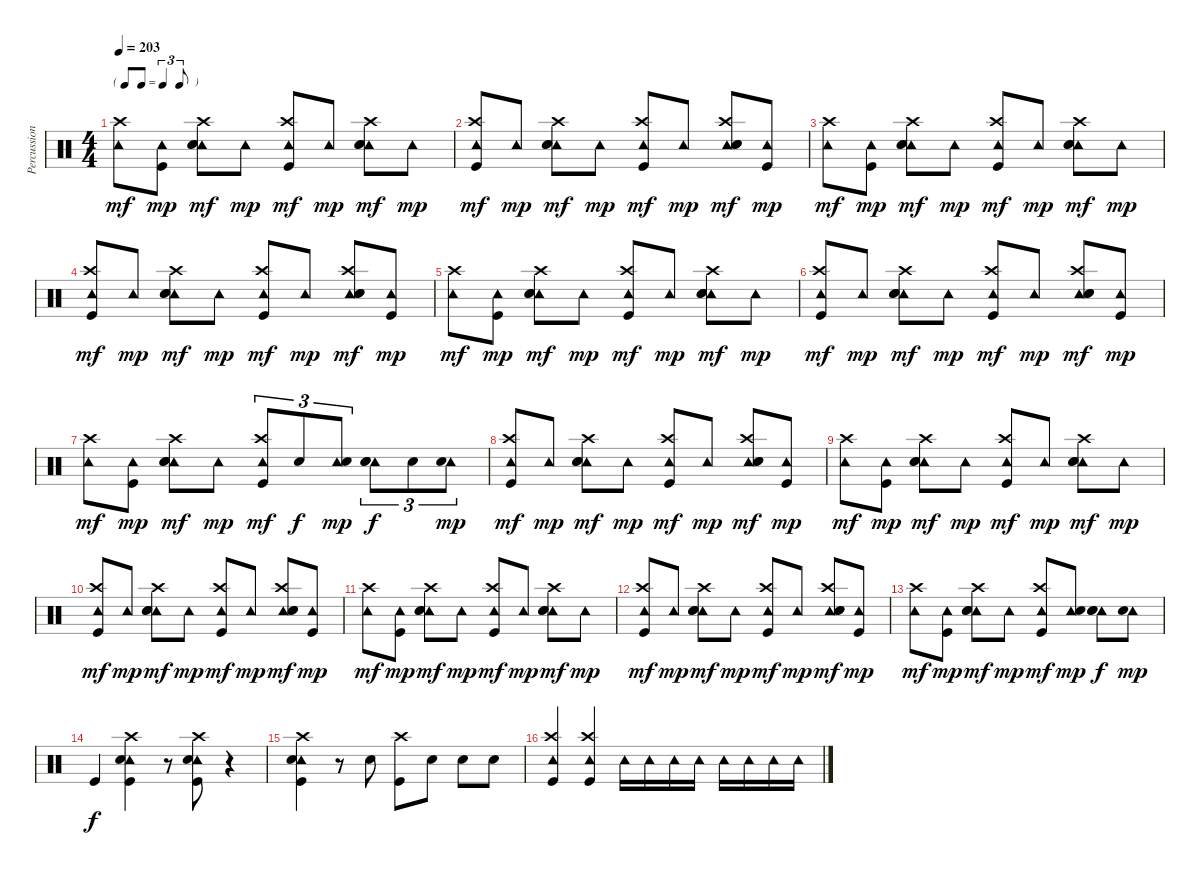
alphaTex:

\track ("Percussion" "Percussion") {instrument percussion}
\staff {score}
\articulation defaults
\ts (4 4)
\tf triplet8th
\tempo 203
\clef neutral
\ks c
("Tambourine (hit)" "Crash high (hit)").8{dy mf} ("Tambourine (hit)" "Kick (hit)").8{dy mp} ("Tambourine (hit)" "Crash high (hit)" "Hand Clap (hit)" "Snare (hit) 2").8{dy mf} "Tambourine (hit)".8{dy mp} ("Tambourine (hit)" "Crash high (hit)" "Kick (hit)").8{dy mf} "Tambourine (hit)".8{dy mp} ("Tambourine (hit)" "Crash high (hit)" "Hand Clap (hit)" "Snare (hit) 2").8{dy mf} "Tambourine (hit)".8{dy mp} |
("Tambourine (hit)" "Crash high (hit)" "Kick (hit)").8{dy mf} "Tambourine (hit)".8{dy mp} ("Tambourine (hit)" "Crash high (hit)" "Hand Clap (hit)" "Snare (hit) 2").8{dy mf} "Tambourine (hit)".8{dy mp} ("Tambourine (hit)" "Crash high (hit)" "Kick (hit)").8{dy mf} "Tambourine (hit)".8{dy mp} ("Tambourine (hit)" "Crash high (hit)" "Hand Clap (hit)" "Snare (hit) 2").8{dy mf} ("Tambourine (hit)" "Kick (hit)").8{dy mp} |
("Tambourine (hit)" "Crash high (hit)").8{dy mf} ("Tambourine (hit)" "Kick (hit)").8{dy mp} ("Tambourine (hit)" "Crash high (hit)" "Hand Clap (hit)" "Snare (hit) 2").8{dy mf} "Tambourine (hit)".8{dy mp} ("Tambourine (hit)" "Crash high (hit)" "Kick (hit)").8{dy mf} "Tambourine (hit)".8{dy mp} ("Tambourine (hit)" "Crash high (hit)" "Hand Clap (hit)" "Snare (hit) 2").8{dy mf} "Tambourine (hit)".8{dy mp} |
("Tambourine (hit)" "Crash high (hit)" "Kick (hit)").8{dy mf} "Tambourine (hit)".8{dy mp} ("Tambourine (hit)" "Crash high (hit)" "Hand Clap (hit)" "Snare (hit) 2").8{dy mf} "Tambourine (hit)".8{dy mp} ("Tambourine (hit)" "Crash high (hit)" "Kick (hit)").8{dy mf} "Tambourine (hit)".8{dy mp} ("Tambourine (hit)" "Crash high (hit)" "Hand Clap (hit)" "Snare (hit) 2").8{dy mf} ("Tambourine (hit)" "Kick (hit)").8{dy mp} |
("Tambourine (hit)" "Crash high (hit)").8{dy mf} ("Tambourine (hit)" "Kick (hit)").8{dy mp} ("Tambourine (hit)" "Crash high (hit)" "Hand Clap (hit)" "Snare (hit) 2").8{dy mf} "Tambourine (hit)".8{dy mp} ("Tambourine (hit)" "Crash high (hit)" "Kick (hit)").8{dy mf} "Tambourine (hit)".8{dy mp} ("Tambourine (hit)" "Crash high (hit)" "Hand Clap (hit)" "Snare (hit) 2").8{dy mf} "Tambourine (hit)".8{dy mp} |
("Tambourine (hit)" "Crash high (hit)" "Kick (hit)").8{dy mf} "Tambourine (hit)".8{dy mp} ("Tambourine (hit)" "Crash high (hit)" "Hand Clap (hit)" "Snare (hit) 2").8{dy mf} "Tambourine (hit)".8{dy mp} ("Tambourine (hit)" "Crash high (hit)" "Kick (hit)").8{dy mf} "Tambourine (hit)".8{dy mp} ("Tambourine (hit)" "Crash high (hit)" "Hand Clap (hit)" "Snare (hit) 2").8{dy mf} ("Tambourine (hit)" "Kick (hit)").8{dy mp} |
("Tambourine (hit)" "Crash high (hit)").8{dy mf} ("Tambourine (hit)" "Kick (hit)").8{dy mp} ("Tambourine (hit)" "Crash high (hit)" "Hand Clap (hit)" "Snare (hit) 2").8{dy mf} "Tambourine (hit)".8{dy mp} ("Tambourine (hit)" "Crash high (hit)" "Kick (hit)").8{tu (3 2) dy mf} "Snare (hit) 2".8{tu (3 2) dy f} ("Tambourine (hit)" "Snare (hit) 2").8{tu (3 2) dy mp} ("Tambourine (hit)" "Hand Clap (hit)" "Snare (hit) 2").8{tu (3 2) dy f} "Snare (hit) 2".8{tu (3 2)} ("Tambourine (hit)" "Snare (hit) 2").8{tu (3 2) dy mp} |
("Tambourine (hit)" "Crash high (hit)" "Kick (hit)").8{dy mf} "Tambourine (hit)".8{dy mp} ("Tambourine (hit)" "Crash high (hit)" "Hand Clap (hit)" "Snare (hit) 2").8{dy mf} "Tambourine (hit)".8{dy mp} ("Tambourine (hit)" "Crash high (hit)" "Kick (hit)").8{dy mf} "Tambourine (hit)".8{dy mp} ("Tambourine (hit)" "Crash high (hit)" "Hand Clap (hit)" "Snare (hit) 2").8{dy mf} ("Tambourine (hit)" "Kick (hit)").8{dy mp} |
("Tambourine (hit)" "Crash high (hit)").8{dy mf} ("Tambourine (hit)" "Kick (hit)").8{dy mp} ("Tambourine (hit)" "Crash high (hit)" "Hand Clap (hit)" "Snare (hit) 2").8{dy mf} "Tambourine (hit)".8{dy mp} ("Tambourine (hit)" "Crash high (hit)" "Kick (hit)").8{dy mf} "Tambourine (hit)".8{dy mp} ("Tambourine (hit)" "Crash high (hit)" "Hand Clap (hit)" "Snare (hit) 2").8{dy mf} "Tambourine (hit)".8{dy mp} |
("Tambourine (hit)" "Crash high (hit)" "Kick (hit)").8{dy mf} "Tambourine (hit)".8{dy mp} ("Tambourine (hit)" "Crash high (hit)" "Hand Clap (hit)" "Snare (hit) 2").8{dy mf} "Tambourine (hit)".8{dy mp} ("Tambourine (hit)" "Crash high (hit)" "Kick (hit)").8{dy mf} "Tambourine (hit)".8{dy mp} ("Tambourine (hit)" "Crash high (hit)" "Hand Clap (hit)" "Snare (hit) 2").8{dy mf} ("Tambourine (hit)" "Kick (hit)").8{dy mp} |
("Tambourine (hit)" "Crash high (hit)").8{dy mf} ("Tambourine (hit)" "Kick (hit)").8{dy mp} ("Tambourine (hit)" "Crash high (hit)" "Hand Clap (hit)" "Snare (hit) 2").8{dy mf} "Tambourine (hit)".8{dy mp} ("Tambourine (hit)" "Crash high (hit)" "Kick (hit)").8{dy mf} "Tambourine (hit)".8{dy mp} ("Tambourine (hit)" "Crash high (hit)" "Hand Clap (hit)" "Snare (hit) 2").8{dy mf} "Tambourine (hit)".8{dy mp} |
("Tambourine (hit)" "Crash high (hit)" "Kick (hit)").8{dy mf} "Tambourine (hit)".8{dy mp} ("Tambourine (hit)" "Crash high (hit)" "Hand Clap (hit)" "Snare (hit) 2").8{dy mf} "Tambourine (hit)".8{dy mp} ("Tambourine (hit)" "Crash high (hit)" "Kick (hit)").8{dy mf} "Tambourine (hit)".8{dy mp} ("Tambourine (hit)" "Crash high (hit)" "Hand Clap (hit)" "Snare (hit) 2").8{dy mf} ("Tambourine (hit)" "Kick (hit)").8{dy mp} |
("Tambourine (hit)" "Crash high (hit)").8{dy mf} ("Tambourine (hit)" "Kick (hit)").8{dy mp} ("Tambourine (hit)" "Crash high (hit)" "Hand Clap (hit)" "Snare (hit) 2").8{dy mf} "Tambourine (hit)".8{dy mp} ("Tambourine (hit)" "Crash high (hit)" "Kick (hit)").8{dy mf} ("Tambourine (hit)" "Snare (hit) 2").8{dy mp} ("Tambourine (hit)" "Hand Clap (hit)" "Snare (hit) 2").8{dy f} ("Tambourine (hit)" "Snare (hit) 2").8{dy mp} |
"Kick (hit)".4{dy f} ("Tambourine (hit)" "Crash high (hit)" "Snare (hit) 2" "Kick (hit)").4 r.8 ("Tambourine (hit)" "Crash high (hit)" "Snare (hit) 2" "Kick (hit)").8 r.4 |
("Tambourine (hit)" "Crash high (hit)" "Snare (hit) 2" "Kick (hit)").4 r.8 "Snare (hit) 2".8 ("Crash high (hit)" "Kick (hit)").8 "Snare (hit) 2".8 "Snare (hit) 2".8 "Snare (hit) 2".8 |
("Tambourine (hit)" "Crash high (hit)" "Kick (hit)").4 ("Tambourine (hit)" "Crash high (hit)" "Kick (hit)").4 "Tambourine (hit)".16 "Tambourine (hit)".16 "Tambourine (hit)".16 "Tambourine (hit)".16 "Tambourine (hit)".16 "Tambourine (hit)".16 "Tambourine (hit)".16 "Tambourine (hit)".16
